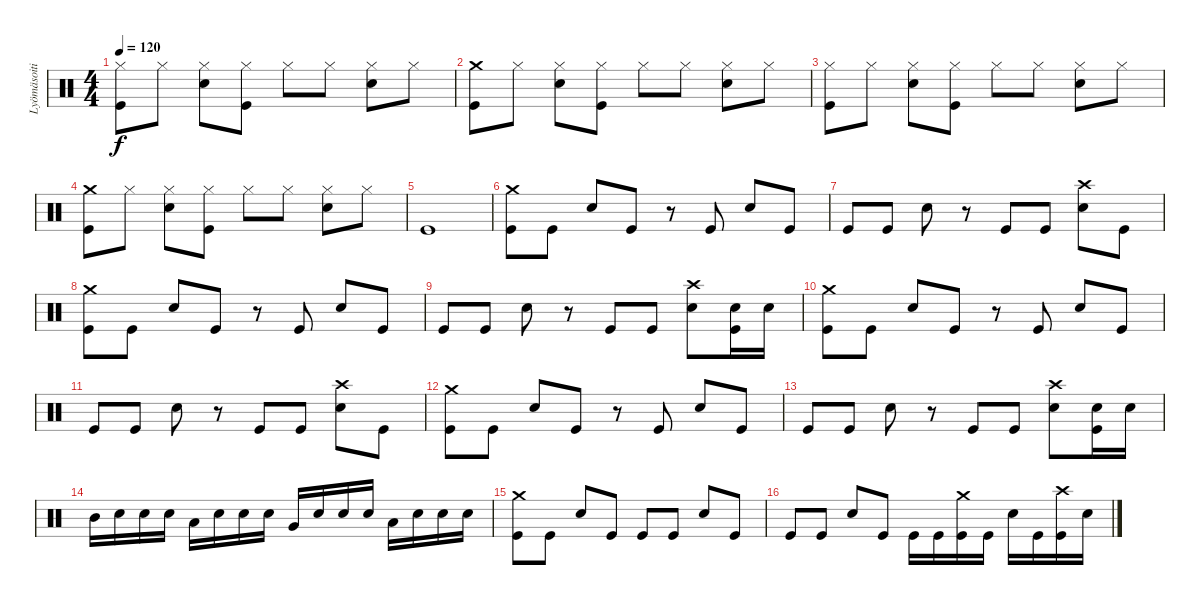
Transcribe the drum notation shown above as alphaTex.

\track ("Lyömäsoitin" "Lyömäsoiti") {instrument percussion}
\staff {score}
\articulation defaults
\ts (4 4)
\tempo 120
\clef neutral
\ks c
("Hi-Hat (closed)" "Kick (hit)").8{dy f} "Hi-Hat (closed)".8 ("Hi-Hat (closed)" "Snare (hit) 2").8 ("Hi-Hat (closed)" "Kick (hit)").8 "Hi-Hat (closed)".8 "Hi-Hat (closed)".8 ("Hi-Hat (closed)" "Snare (hit) 2").8 "Hi-Hat (closed)".8 |
("Crash medium (hit)" "Kick (hit)").8 "Hi-Hat (closed)".8 ("Hi-Hat (closed)" "Snare (hit) 2").8 ("Hi-Hat (closed)" "Kick (hit)").8 "Hi-Hat (closed)".8 "Hi-Hat (closed)".8 ("Hi-Hat (closed)" "Snare (hit) 2").8 "Hi-Hat (closed)".8 |
("Hi-Hat (closed)" "Kick (hit)").8 "Hi-Hat (closed)".8 ("Hi-Hat (closed)" "Snare (hit) 2").8 ("Hi-Hat (closed)" "Kick (hit)").8 "Hi-Hat (closed)".8 "Hi-Hat (closed)".8 ("Hi-Hat (closed)" "Snare (hit) 2").8 "Hi-Hat (closed)".8 |
("Crash medium (hit)" "Kick (hit)").8 "Hi-Hat (closed)".8 ("Hi-Hat (closed)" "Snare (hit) 2").8 ("Hi-Hat (closed)" "Kick (hit)").8 "Hi-Hat (closed)".8 "Hi-Hat (closed)".8 ("Hi-Hat (closed)" "Snare (hit) 2").8 "Hi-Hat (closed)".8 |
"Kick (hit)".1 |
("Kick (hit)" "Crash medium (hit)").8 "Kick (hit)".8 "Snare (hit) 2".8 "Kick (hit)".8 r.8 "Kick (hit)".8 "Snare (hit) 2".8 "Kick (hit)".8 |
"Kick (hit)".8 "Kick (hit)".8 "Snare (hit) 2".8 r.8 "Kick (hit)".8 "Kick (hit)".8 ("Snare (hit) 2" "Crash high (hit)").8 "Kick (hit)".8 |
("Kick (hit)" "Crash medium (hit)").8 "Kick (hit)".8 "Snare (hit) 2".8 "Kick (hit)".8 r.8 "Kick (hit)".8 "Snare (hit) 2".8 "Kick (hit)".8 |
"Kick (hit)".8 "Kick (hit)".8 "Snare (hit) 2".8 r.8 "Kick (hit)".8 "Kick (hit)".8 ("Snare (hit) 2" "Crash high (hit)").8 ("Kick (hit)" "Snare (hit) 2").16 "Snare (hit) 2".16 |
("Kick (hit)" "Crash medium (hit)").8 "Kick (hit)".8 "Snare (hit) 2".8 "Kick (hit)".8 r.8 "Kick (hit)".8 "Snare (hit) 2".8 "Kick (hit)".8 |
"Kick (hit)".8 "Kick (hit)".8 "Snare (hit) 2".8 r.8 "Kick (hit)".8 "Kick (hit)".8 ("Snare (hit) 2" "Crash high (hit)").8 "Kick (hit)".8 |
("Kick (hit)" "Crash medium (hit)").8 "Kick (hit)".8 "Snare (hit) 2".8 "Kick (hit)".8 r.8 "Kick (hit)".8 "Snare (hit) 2".8 "Kick (hit)".8 |
"Kick (hit)".8 "Kick (hit)".8 "Snare (hit) 2".8 r.8 "Kick (hit)".8 "Kick (hit)".8 ("Snare (hit) 2" "Crash high (hit)").8 ("Kick (hit)" "Snare (hit) 2").16 "Snare (hit) 2".16 |
"Mid Tom (hit)".16 "Snare (hit) 2".16 "Snare (hit) 2".16 "Snare (hit) 2".16 "Low Tom (hit)".16 "Snare (hit) 2".16 "Snare (hit) 2".16 "Snare (hit) 2".16 "Very Low Tom (hit)".16 "Snare (hit) 2".16 "Snare (hit) 2".16 "Snare (hit) 2".16 "Low Floor Tom (hit)".16 "Snare (hit) 2".16 "Snare (hit) 2".16 "Snare (hit) 2".16 |
("Kick (hit)" "Crash medium (hit)").8 "Kick (hit)".8 "Electric Snare (hit)".8 "Kick (hit)".8 "Kick (hit)".8 "Kick (hit)".8 "Electric Snare (hit)".8 "Kick (hit)".8 |
"Kick (hit)".8 "Kick (hit)".8 "Electric Snare (hit)".8 "Kick (hit)".8 "Kick (hit)".16 "Kick (hit)".16 ("Kick (hit)" "Crash medium (hit)").16 "Kick (hit)".16 "Electric Snare (hit)".16 "Kick (hit)".16 ("Kick (hit)" "Crash high (hit)").16 "Electric Snare (hit)".16
